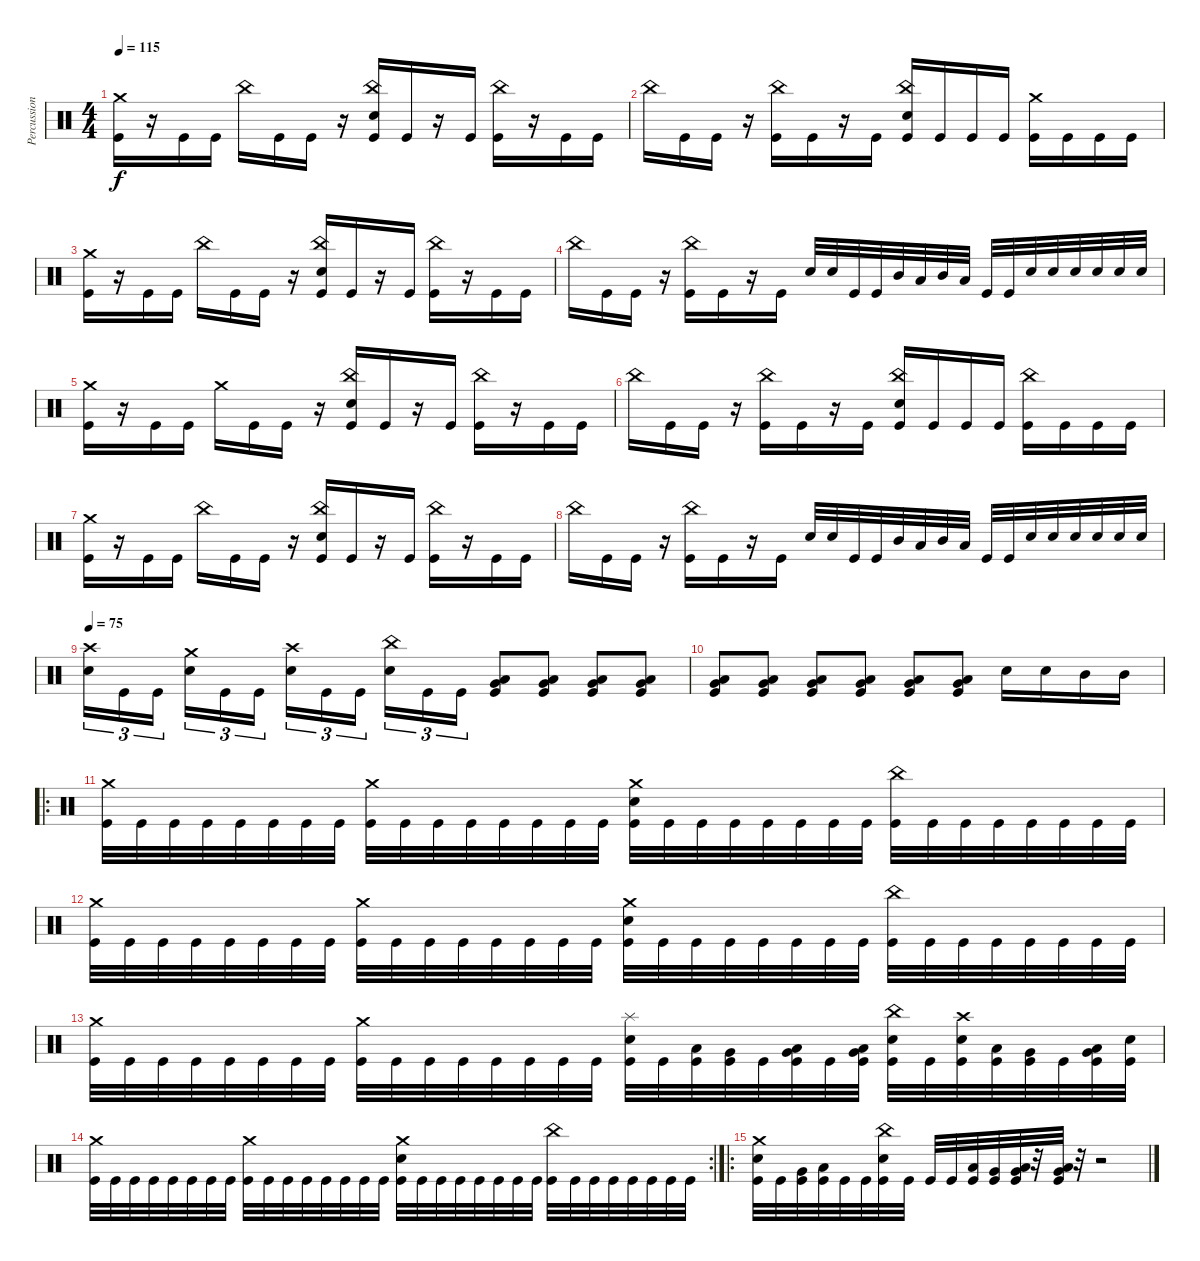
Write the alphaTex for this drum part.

\track ("Percussion" "Percussion") {instrument percussion}
\staff {score}
\articulation defaults
\ts (4 4)
\tempo 115
\clef neutral
\ks c
("Crash medium (hit)" "Kick (hit)").16{dy f} r.16 "Kick (hit)".16 "Kick (hit)".16 "China (hit)".16 "Kick (hit)".16 "Kick (hit)".16 r.16 ("China (hit)" "Electric Snare (hit)" "Kick (hit)").16 "Kick (hit)".16 r.16 "Kick (hit)".16 ("China (hit)" "Kick (hit)").16 r.16 "Kick (hit)".16 "Kick (hit)".16 |
"China (hit)".16 "Kick (hit)".16 "Kick (hit)".16 r.16 ("China (hit)" "Kick (hit)").16 "Kick (hit)".16 r.16 "Kick (hit)".16 ("China (hit)" "Electric Snare (hit)" "Kick (hit)").16 "Kick (hit)".16 "Kick (hit)".16 "Kick (hit)".16 ("Crash medium (hit)" "Kick (hit)").16 "Kick (hit)".16 "Kick (hit)".16 "Kick (hit)".16 |
("Crash medium (hit)" "Kick (hit)").16 r.16 "Kick (hit)".16 "Kick (hit)".16 "China (hit)".16 "Kick (hit)".16 "Kick (hit)".16 r.16 ("China (hit)" "Electric Snare (hit)" "Kick (hit)").16 "Kick (hit)".16 r.16 "Kick (hit)".16 ("China (hit)" "Kick (hit)").16 r.16 "Kick (hit)".16 "Kick (hit)".16 |
"China (hit)".16 "Kick (hit)".16 "Kick (hit)".16 r.16 ("China (hit)" "Kick (hit)").16 "Kick (hit)".16 r.16 "Kick (hit)".16 "Electric Snare (hit)".32 "Electric Snare (hit)".32 "Kick (hit)".32 "Kick (hit)".32 "Mid Tom (hit)".32 "Low Tom (hit)".32 "Mid Tom (hit)".32 "Low Tom (hit)".32 "Kick (hit)".32 "Kick (hit)".32 "Electric Snare (hit)".32 "Electric Snare (hit)".32 "Electric Snare (hit)".32 "Electric Snare (hit)".32 "Electric Snare (hit)".32 "Electric Snare (hit)".32 |
("Crash medium (hit)" "Kick (hit)").16 r.16 "Kick (hit)".16 "Kick (hit)".16 "Crash medium (hit)".16 "Kick (hit)".16 "Kick (hit)".16 r.16 ("China (hit)" "Electric Snare (hit)" "Kick (hit)").16 "Kick (hit)".16 r.16 "Kick (hit)".16 ("China (hit)" "Kick (hit)").16 r.16 "Kick (hit)".16 "Kick (hit)".16 |
"China (hit)".16 "Kick (hit)".16 "Kick (hit)".16 r.16 ("China (hit)" "Kick (hit)").16 "Kick (hit)".16 r.16 "Kick (hit)".16 ("China (hit)" "Electric Snare (hit)" "Kick (hit)").16 "Kick (hit)".16 "Kick (hit)".16 "Kick (hit)".16 ("China (hit)" "Kick (hit)").16 "Kick (hit)".16 "Kick (hit)".16 "Kick (hit)".16 |
("Crash medium (hit)" "Kick (hit)").16 r.16 "Kick (hit)".16 "Kick (hit)".16 "China (hit)".16 "Kick (hit)".16 "Kick (hit)".16 r.16 ("China (hit)" "Electric Snare (hit)" "Kick (hit)").16 "Kick (hit)".16 r.16 "Kick (hit)".16 ("China (hit)" "Kick (hit)").16 r.16 "Kick (hit)".16 "Kick (hit)".16 |
"China (hit)".16 "Kick (hit)".16 "Kick (hit)".16 r.16 ("China (hit)" "Kick (hit)").16 "Kick (hit)".16 r.16 "Kick (hit)".16 "Electric Snare (hit)".32 "Electric Snare (hit)".32 "Kick (hit)".32 "Kick (hit)".32 "Mid Tom (hit)".32 "Low Tom (hit)".32 "Mid Tom (hit)".32 "Low Tom (hit)".32 "Kick (hit)".32 "Kick (hit)".32 "Electric Snare (hit)".32 "Electric Snare (hit)".32 "Electric Snare (hit)".32 "Electric Snare (hit)".32 "Electric Snare (hit)".32 "Electric Snare (hit)".32 |
\tempo 75
("Crash high (hit)" "Electric Snare (hit)").16{tu (3 2)} "Kick (hit)".16{tu (3 2)} "Kick (hit)".16{tu (3 2) beam splitsecondary} ("Crash medium (hit)" "Electric Snare (hit)").16{tu (3 2)} "Kick (hit)".16{tu (3 2)} "Kick (hit)".16{tu (3 2)} ("Crash high (hit)" "Electric Snare (hit)").16{tu (3 2)} "Kick (hit)".16{tu (3 2)} "Kick (hit)".16{tu (3 2) beam splitsecondary} ("China (hit)" "Electric Snare (hit)").16{tu (3 2)} "Kick (hit)".16{tu (3 2)} "Kick (hit)".16{tu (3 2)} ("Very Low Tom (hit)" "Low Tom (hit)" "Kick (hit)").8 ("Very Low Tom (hit)" "Low Tom (hit)" "Kick (hit)").8 ("Very Low Tom (hit)" "Low Tom (hit)" "Kick (hit)").8 ("Very Low Tom (hit)" "Low Tom (hit)" "Kick (hit)").8 |
("Very Low Tom (hit)" "Low Tom (hit)" "Kick (hit)").8 ("Very Low Tom (hit)" "Low Tom (hit)" "Kick (hit)").8 ("Very Low Tom (hit)" "Low Tom (hit)" "Kick (hit)").8 ("Very Low Tom (hit)" "Low Tom (hit)" "Kick (hit)").8 ("Very Low Tom (hit)" "Low Tom (hit)" "Kick (hit)").8 ("Very Low Tom (hit)" "Low Tom (hit)" "Kick (hit)").8 "Electric Snare (hit)".16 "Electric Snare (hit)".16 "Mid Tom (hit)".16 "Mid Tom (hit)".16 |
\ro
("Crash medium (hit)" "Kick (hit)").32 "Kick (hit)".32 "Kick (hit)".32 "Kick (hit)".32 "Kick (hit)".32 "Kick (hit)".32 "Kick (hit)".32 "Kick (hit)".32 ("Crash medium (hit)" "Kick (hit)").32 "Kick (hit)".32 "Kick (hit)".32 "Kick (hit)".32 "Kick (hit)".32 "Kick (hit)".32 "Kick (hit)".32 "Kick (hit)".32 ("Crash medium (hit)" "Electric Snare (hit)" "Kick (hit)").32 "Kick (hit)".32 "Kick (hit)".32 "Kick (hit)".32 "Kick (hit)".32 "Kick (hit)".32 "Kick (hit)".32 "Kick (hit)".32 ("China (hit)" "Kick (hit)").32 "Kick (hit)".32 "Kick (hit)".32 "Kick (hit)".32 "Kick (hit)".32 "Kick (hit)".32 "Kick (hit)".32 "Kick (hit)".32 |
("Crash medium (hit)" "Kick (hit)").32 "Kick (hit)".32 "Kick (hit)".32 "Kick (hit)".32 "Kick (hit)".32 "Kick (hit)".32 "Kick (hit)".32 "Kick (hit)".32 ("Crash medium (hit)" "Kick (hit)").32 "Kick (hit)".32 "Kick (hit)".32 "Kick (hit)".32 "Kick (hit)".32 "Kick (hit)".32 "Kick (hit)".32 "Kick (hit)".32 ("Crash medium (hit)" "Electric Snare (hit)" "Kick (hit)").32 "Kick (hit)".32 "Kick (hit)".32 "Kick (hit)".32 "Kick (hit)".32 "Kick (hit)".32 "Kick (hit)".32 "Kick (hit)".32 ("China (hit)" "Kick (hit)").32 "Kick (hit)".32 "Kick (hit)".32 "Kick (hit)".32 "Kick (hit)".32 "Kick (hit)".32 "Kick (hit)".32 "Kick (hit)".32 |
("Crash medium (hit)" "Kick (hit)").32 "Kick (hit)".32 "Kick (hit)".32 "Kick (hit)".32 "Kick (hit)".32 "Kick (hit)".32 "Kick (hit)".32 "Kick (hit)".32 ("Crash medium (hit)" "Kick (hit)").32 "Kick (hit)".32 "Kick (hit)".32 "Kick (hit)".32 "Kick (hit)".32 "Kick (hit)".32 "Kick (hit)".32 "Kick (hit)".32 ("Splash (hit)" "Electric Snare (hit)" "Kick (hit)").32 "Kick (hit)".32 ("Low Tom (hit)" "Kick (hit)").32 ("Very Low Tom (hit)" "Kick (hit)").32 "Kick (hit)".32 ("Very Low Tom (hit)" "Low Floor Tom (hit)" "Kick (hit)").32 "Kick (hit)".32 ("Very Low Tom (hit)" "Low Floor Tom (hit)" "Kick (hit)").32 ("China (hit)" "Electric Snare (hit)" "Kick (hit)").32 "Kick (hit)".32 ("Crash high (hit)" "Electric Snare (hit)" "Kick (hit)").32 ("Low Tom (hit)" "Kick (hit)").32 ("Very Low Tom (hit)" "Kick (hit)").32 "Kick (hit)".32 ("Low Floor Tom (hit)" "Very Low Tom (hit)" "Kick (hit)").32 ("Electric Snare (hit)" "Kick (hit)").32 |
\rc 2
("Crash medium (hit)" "Kick (hit)").32 "Kick (hit)".32 "Kick (hit)".32 "Kick (hit)".32 "Kick (hit)".32 "Kick (hit)".32 "Kick (hit)".32 "Kick (hit)".32 ("Crash medium (hit)" "Kick (hit)").32 "Kick (hit)".32 "Kick (hit)".32 "Kick (hit)".32 "Kick (hit)".32 "Kick (hit)".32 "Kick (hit)".32 "Kick (hit)".32 ("Crash medium (hit)" "Electric Snare (hit)" "Kick (hit)").32 "Kick (hit)".32 "Kick (hit)".32 "Kick (hit)".32 "Kick (hit)".32 "Kick (hit)".32 "Kick (hit)".32 "Kick (hit)".32 ("China (hit)" "Kick (hit)").32 "Kick (hit)".32 "Kick (hit)".32 "Kick (hit)".32 "Kick (hit)".32 "Kick (hit)".32 "Kick (hit)".32 "Kick (hit)".32 |
\ro
("Crash medium (hit)" "Electric Snare (hit)" "Kick (hit)").32 "Kick (hit)".32 ("Very Low Tom (hit)" "Kick (hit)").32 ("Low Floor Tom (hit)" "Kick (hit)").32 "Kick (hit)".32 "Kick (hit)".32 ("China (hit)" "Electric Snare (hit)" "Kick (hit)").32 "Kick (hit)".32 "Kick (hit)".32 "Kick (hit)".32 ("Low Tom (hit)" "Kick (hit)").32 ("Very Low Tom (hit)" "Kick (hit)").32 ("Low Floor Tom (hit)" "Very Low Tom (hit)" "Kick (hit)").32 r.32 ("Low Floor Tom (hit)" "Very Low Tom (hit)" "Kick (hit)").32 r.32 r.2
